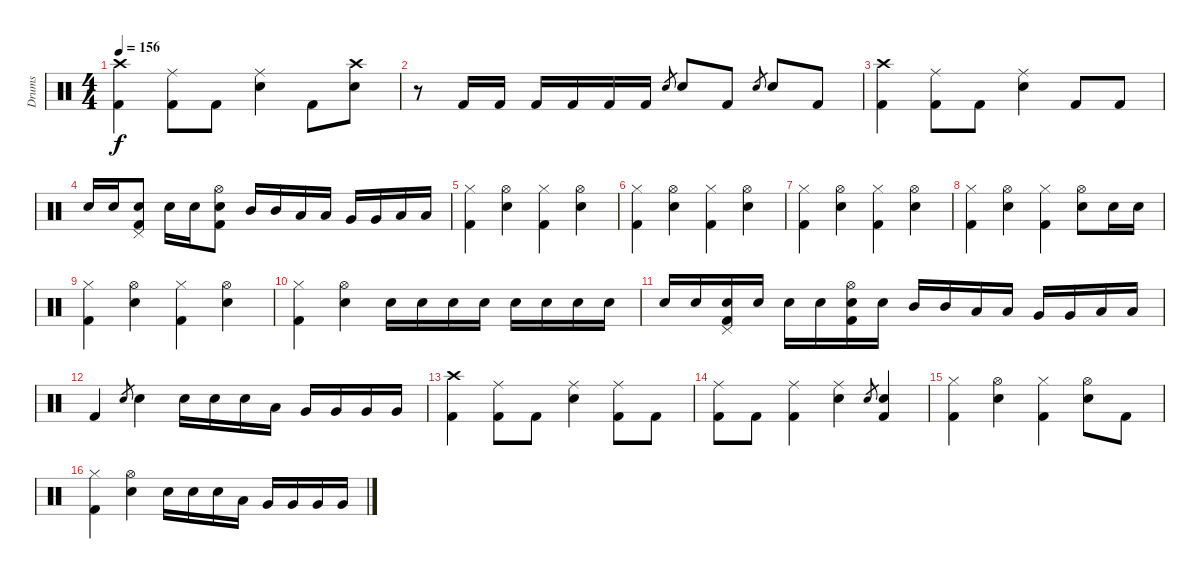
\track ("Drums" "Drums") {instrument percussion}
\staff {score}
\articulation defaults
\ts (4 4)
\tempo 156
\clef neutral
\ks c
("Crash high (hit)" "Kick (hit) 2").4{dy f} ("Ride (middle)" "Kick (hit) 2").8 "Kick (hit) 2".8 ("Ride (middle)" "Electric Snare (hit)").4 "Kick (hit) 2".8 ("Crash high (hit)" "Electric Snare (hit)").8 |
r.8 "Kick (hit) 2".16 "Kick (hit) 2".16 "Kick (hit) 2".16 "Kick (hit) 2".16 "Kick (hit) 2".16 "Kick (hit) 2".16 "Electric Snare (hit)".8{gr} "Electric Snare (hit)".8 "Kick (hit) 2".8 "Electric Snare (hit)".8{gr} "Electric Snare (hit)".8 "Kick (hit) 2".8 |
("Crash high (hit)" "Kick (hit) 2").4 ("Ride (middle)" "Kick (hit) 2").8 "Kick (hit) 2".8 ("Ride (middle)" "Electric Snare (hit)").4 "Kick (hit) 2".8 "Kick (hit) 2".8 |
"Electric Snare (hit)".16 "Electric Snare (hit)".16 ("Pedal Hi-Hat (hit)" "Electric Snare (hit)" "Kick (hit) 2").8 "Electric Snare (hit)".16 "Electric Snare (hit)".16 ("Hi-Hat (open)" "Electric Snare (hit)" "Kick (hit) 2").8 "Mid Tom (hit)".16 "Mid Tom (hit)".16 "Low Tom (hit)".16 "Low Tom (hit)".16 "Very Low Tom (hit)".16 "Very Low Tom (hit)".16 "Low Floor Tom (hit)".16 "Low Floor Tom (hit)".16 |
("Hi-Hat (closed)" "Kick (hit) 2").4 ("Hi-Hat (open)" "Electric Snare (hit)").4 ("Hi-Hat (closed)" "Kick (hit) 2").4 ("Hi-Hat (open)" "Electric Snare (hit)").4 |
("Hi-Hat (closed)" "Kick (hit) 2").4 ("Hi-Hat (open)" "Electric Snare (hit)").4 ("Hi-Hat (closed)" "Kick (hit) 2").4 ("Hi-Hat (open)" "Electric Snare (hit)").4 |
("Hi-Hat (closed)" "Kick (hit) 2").4 ("Hi-Hat (open)" "Electric Snare (hit)").4 ("Hi-Hat (closed)" "Kick (hit) 2").4 ("Hi-Hat (open)" "Electric Snare (hit)").4 |
("Hi-Hat (closed)" "Kick (hit) 2").4 ("Hi-Hat (open)" "Electric Snare (hit)").4 ("Hi-Hat (closed)" "Kick (hit) 2").4 ("Hi-Hat (open)" "Electric Snare (hit)").8 "Electric Snare (hit)".16 "Electric Snare (hit)".16 |
("Hi-Hat (closed)" "Kick (hit) 2").4 ("Hi-Hat (open)" "Electric Snare (hit)").4 ("Hi-Hat (closed)" "Kick (hit) 2").4 ("Hi-Hat (open)" "Electric Snare (hit)").4 |
("Hi-Hat (closed)" "Kick (hit) 2").4 ("Hi-Hat (open)" "Electric Snare (hit)").4 "Electric Snare (hit)".16 "Electric Snare (hit)".16 "Electric Snare (hit)".16 "Electric Snare (hit)".16 "Electric Snare (hit)".16 "Electric Snare (hit)".16 "Electric Snare (hit)".16 "Electric Snare (hit)".16 |
"Electric Snare (hit)".16 "Electric Snare (hit)".16 ("Pedal Hi-Hat (hit)" "Electric Snare (hit)" "Kick (hit) 2").16 "Electric Snare (hit)".16 "Electric Snare (hit)".16 "Electric Snare (hit)".16 ("Hi-Hat (open)" "Electric Snare (hit)" "Kick (hit) 2").16 "Electric Snare (hit)".16 "Mid Tom (hit)".16 "Mid Tom (hit)".16 "Low Tom (hit)".16 "Low Tom (hit)".16 "Very Low Tom (hit)".16 "Very Low Tom (hit)".16 "Low Floor Tom (hit)".16 "Low Floor Tom (hit)".16 |
"Kick (hit) 2".4 "Electric Snare (hit)".8{gr} "Electric Snare (hit)".4 "Electric Snare (hit)".16 "Electric Snare (hit)".16 "Electric Snare (hit)".16 "Low Tom (hit)".16 "Very Low Tom (hit)".16 "Very Low Tom (hit)".16 "Very Low Tom (hit)".16 "Very Low Tom (hit)".16 |
("Crash high (hit)" "Kick (hit) 2").4 ("Ride (middle)" "Kick (hit) 2").8 "Kick (hit) 2".8 ("Ride (middle)" "Electric Snare (hit)").4 ("Ride (middle)" "Kick (hit) 2").8 "Kick (hit) 2".8 |
("Ride (middle)" "Kick (hit) 2").8 "Kick (hit) 2".8 ("Ride (middle)" "Kick (hit) 2").4 ("Ride (middle)" "Electric Snare (hit)").4 "Electric Snare (hit)".8{gr} ("Electric Snare (hit)" "Kick (hit) 2").4 |
("Hi-Hat (closed)" "Kick (hit) 2").4 ("Hi-Hat (open)" "Electric Snare (hit)").4 ("Hi-Hat (closed)" "Kick (hit) 2").4 ("Hi-Hat (open)" "Electric Snare (hit)").8 "Kick (hit) 2".8 |
("Hi-Hat (closed)" "Kick (hit) 2").4 ("Hi-Hat (open)" "Electric Snare (hit)").4 "Electric Snare (hit)".16 "Electric Snare (hit)".16 "Electric Snare (hit)".16 "Low Tom (hit)".16 "Very Low Tom (hit)".16 "Very Low Tom (hit)".16 "Very Low Tom (hit)".16 "Very Low Tom (hit)".16
